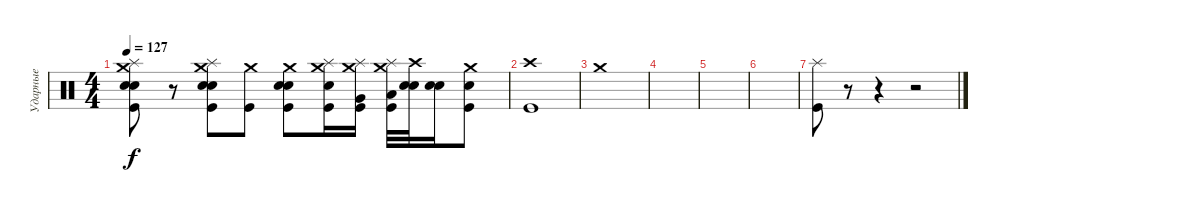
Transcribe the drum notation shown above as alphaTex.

\track ("Ударные" "Ударные") {instrument percussion}
\staff {score}
\articulation defaults
\ts (4 4)
\tempo 127
\clef neutral
\ks c
("Crash medium (hit)" "Splash (hit)" "Electric Snare (hit)" "Electric Snare (hit)" "Kick (hit)").8{dy f} r.8 ("Crash medium (hit)" "Splash (hit)" "Electric Snare (hit)" "Electric Snare (hit)" "Kick (hit)").8 ("Crash medium (hit)" "Kick (hit)").8 ("Crash medium (hit)" "Snare (hit) 2" "Snare (hit) 2" "Kick (hit)").8 ("Crash medium (hit)" "Electric Snare (hit)" "Splash (hit)" "Kick (hit)").16 ("Crash medium (hit)" "Very Low Tom (hit)" "Splash (hit)" "Kick (hit)").16 ("Crash medium (hit)" "Low Floor Tom (hit)" "Splash (hit)" "Kick (hit)").32 ("Crash high (hit)" "Electric Snare (hit)" "Electric Snare (hit)").32 ("Snare (hit) 2" "Snare (hit) 2").16 ("Crash medium (hit)" "Snare (hit) 2" "Kick (hit)").8 |
("Crash high (hit)" "Kick (hit)").1 |
"Crash medium (hit)".1 |
|
|
|
("Splash (hit)" "Kick (hit)").8 r.8 r.4 r.2
